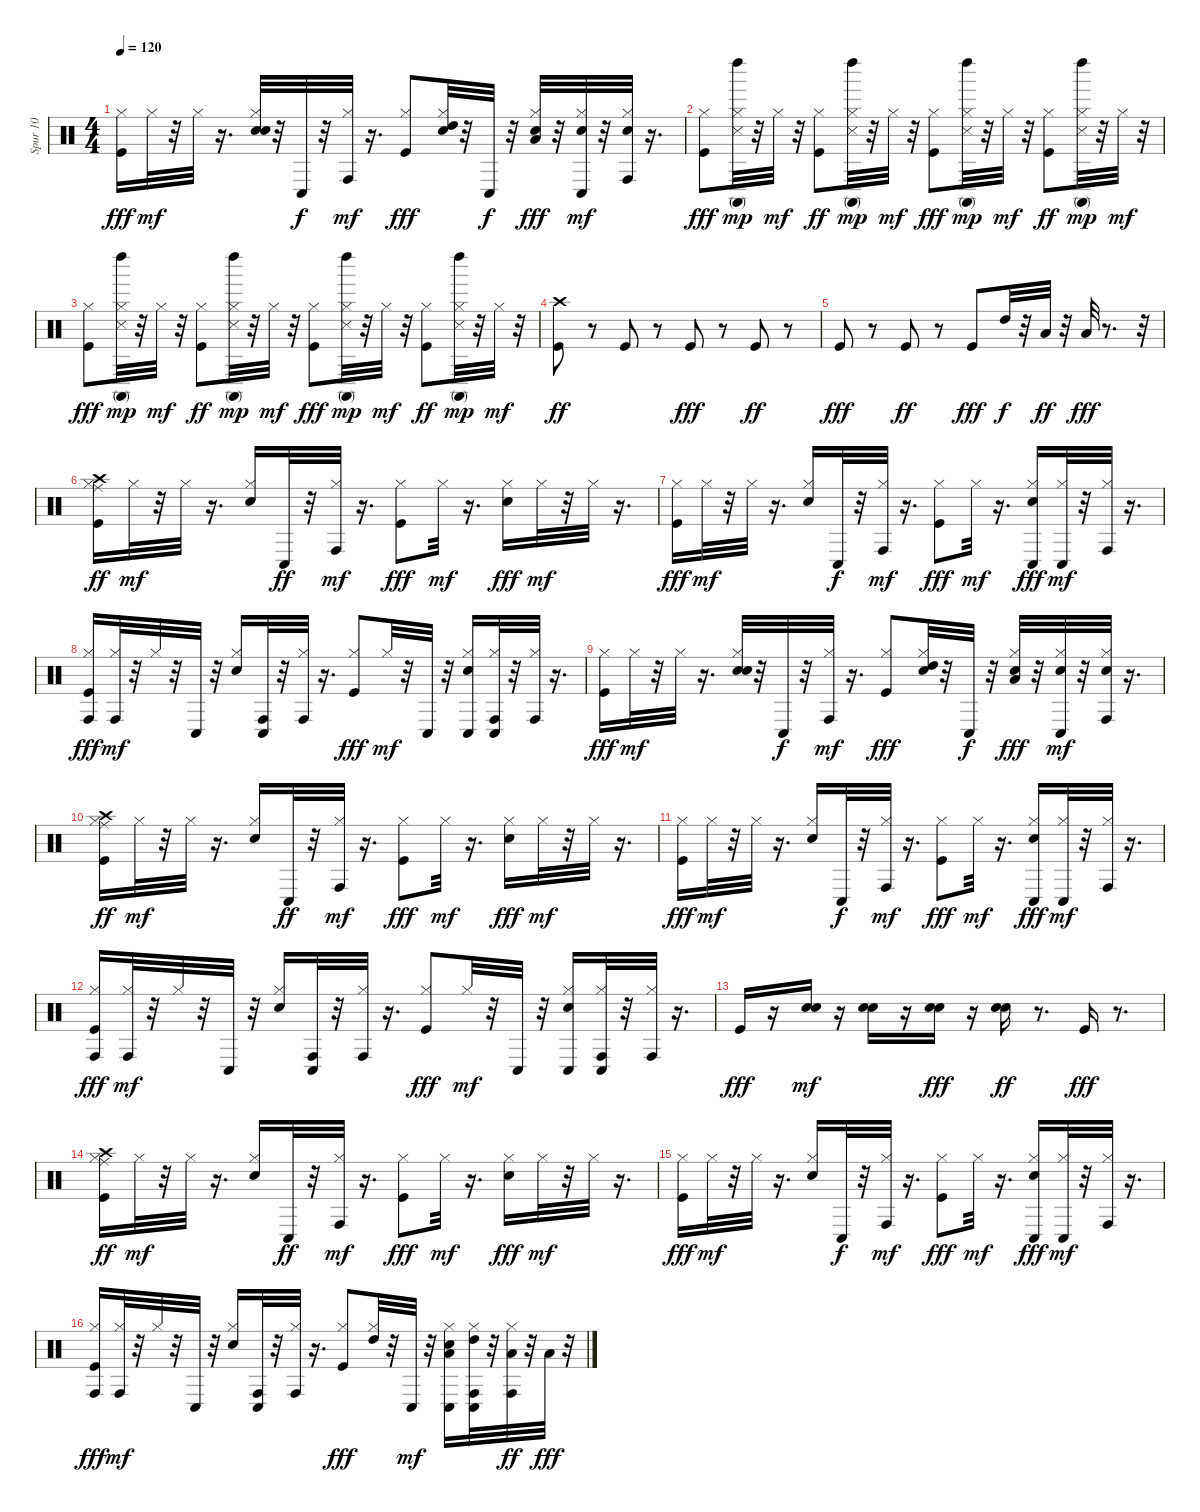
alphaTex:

\track ("Spur 10" "Spur 10") {instrument percussion}
\staff {score}
\articulation defaults
\ts (4 4)
\tempo 120
\clef neutral
\ks c
("Kick (hit)" "Hi-Hat (closed)").16{dy fff} "Hi-Hat (closed)".32{dy mf} r.32 "Hi-Hat (closed)".32 r.16{d} ("Snare (hit) 2" "Electric Snare (hit)" "Hi-Hat (closed)").32 r.32 "Conga low (hit)".32{dy f} r.32 ("Hi-Hat (closed)" "Conga high (hit)").32{dy mf} r.16{d} ("Kick (hit)" "Hi-Hat (closed)").8{dy fff} ("Electric Snare (hit)" "Hi-Hat (closed)" "High Tom (hit)").32 r.32 "Conga low (hit)".32{dy f} r.32 ("Snare (hit) 2" "Hi-Hat (closed)" "Low Floor Tom (hit)").32{dy fff} r.32 ("Snare (hit) 2" "Hi-Hat (closed)" "Conga low (hit)").32{dy mf} r.32 ("Snare (hit) 2" "Hi-Hat (closed)" "Conga high (hit)").32 r.16{d} |
("Kick (hit)" "Hi-Hat (closed)").8{dy fff} ("Hi-Hat (closed)" "Snare (side stick) 3" "Conga high (mute)" "Left Maraca (hit)").32{dy mp} r.32 "Hi-Hat (closed)".32{dy mf} r.32 ("Kick (hit)" "Hi-Hat (closed)").8{dy ff} ("Hi-Hat (closed)" "Snare (side stick) 3" "Conga high (mute)" "Left Maraca (hit)").32{dy mp} r.32 "Hi-Hat (closed)".32{dy mf} r.32 ("Kick (hit)" "Hi-Hat (closed)").8{dy fff} ("Hi-Hat (closed)" "Snare (side stick) 3" "Conga high (mute)" "Left Maraca (hit)").32{dy mp} r.32 "Hi-Hat (closed)".32{dy mf} r.32 ("Kick (hit)" "Hi-Hat (closed)").8{dy ff} ("Hi-Hat (closed)" "Snare (side stick) 3" "Conga high (mute)" "Left Maraca (hit)").32{dy mp} r.32 "Hi-Hat (closed)".32{dy mf} r.32 |
("Kick (hit)" "Hi-Hat (closed)").8{dy fff} ("Hi-Hat (closed)" "Snare (side stick) 3" "Conga high (mute)" "Left Maraca (hit)").32{dy mp} r.32 "Hi-Hat (closed)".32{dy mf} r.32 ("Kick (hit)" "Hi-Hat (closed)").8{dy ff} ("Hi-Hat (closed)" "Snare (side stick) 3" "Conga high (mute)" "Left Maraca (hit)").32{dy mp} r.32 "Hi-Hat (closed)".32{dy mf} r.32 ("Kick (hit)" "Hi-Hat (closed)").8{dy fff} ("Hi-Hat (closed)" "Snare (side stick) 3" "Conga high (mute)" "Left Maraca (hit)").32{dy mp} r.32 "Hi-Hat (closed)".32{dy mf} r.32 ("Kick (hit)" "Hi-Hat (closed)").8{dy ff} ("Hi-Hat (closed)" "Snare (side stick) 3" "Conga high (mute)" "Left Maraca (hit)").32{dy mp} r.32 "Hi-Hat (closed)".32{dy mf} r.32 |
("Kick (hit)" "Crash high (hit)").8{dy ff} r.8 "Kick (hit)".8 r.8 "Kick (hit)".8{dy fff} r.8 "Kick (hit)".8{dy ff} r.8 |
"Kick (hit)".8{dy fff} r.8 "Kick (hit)".8{dy ff} r.8 "Kick (hit)".8{dy fff} "High Tom (hit)".32{dy f} r.32 "Low Tom (hit)".32{dy ff} r.32 "Low Floor Tom (hit)".32{dy fff} r.8{d} r.32 |
("Kick (hit)" "Hi-Hat (closed)" "Ride (middle)" "Crash high (hit)").16{dy ff} "Hi-Hat (closed)".32{dy mf} r.32 "Hi-Hat (closed)".32 r.16{d} ("Snare (hit) 2" "Hi-Hat (closed)").16 "Conga low (hit)".32{dy ff} r.32 ("Hi-Hat (closed)" "Conga high (hit)").32{dy mf} r.16{d} ("Kick (hit)" "Hi-Hat (closed)").8{dy fff} "Hi-Hat (closed)".32{dy mf} r.16{d} ("Snare (hit) 2" "Hi-Hat (closed)").16{dy fff} "Hi-Hat (closed)".32{dy mf} r.32 "Hi-Hat (closed)".32 r.16{d} |
("Kick (hit)" "Hi-Hat (closed)").16{dy fff} "Hi-Hat (closed)".32{dy mf} r.32 "Hi-Hat (closed)".32 r.16{d} ("Snare (hit) 2" "Hi-Hat (closed)").16 "Conga low (hit)".32{dy f} r.32 ("Hi-Hat (closed)" "Conga high (hit)").32{dy mf} r.16{d} ("Kick (hit)" "Hi-Hat (closed)").8{dy fff} "Hi-Hat (closed)".32{dy mf} r.16{d} ("Snare (hit) 2" "Hi-Hat (closed)" "Conga low (hit)").16{dy fff} ("Hi-Hat (closed)" "Conga low (hit)").32{dy mf} r.32 ("Hi-Hat (closed)" "Conga high (hit)").32 r.16{d} |
("Kick (hit)" "Hi-Hat (closed)" "Conga high (hit)").16{dy fff} ("Hi-Hat (closed)" "Conga high (hit)").32{dy mf} r.32 "Hi-Hat (closed)".32 r.32 "Conga low (hit)".32 r.32 ("Snare (hit) 2" "Hi-Hat (closed)").16 ("Conga high (hit)" "Conga low (hit)").32 r.32 ("Hi-Hat (closed)" "Conga high (hit)").32 r.16{d} ("Kick (hit)" "Hi-Hat (closed)").8{dy fff} "Hi-Hat (closed)".32{dy mf} r.32 "Conga low (hit)".32 r.32 ("Snare (hit) 2" "Hi-Hat (closed)" "Conga low (hit)").16 ("Hi-Hat (closed)" "Conga high (hit)" "Conga low (hit)").32 r.32 ("Hi-Hat (closed)" "Conga high (hit)").32 r.16{d} |
("Kick (hit)" "Hi-Hat (closed)").16{dy fff} "Hi-Hat (closed)".32{dy mf} r.32 "Hi-Hat (closed)".32 r.16{d} ("Snare (hit) 2" "Electric Snare (hit)" "Hi-Hat (closed)").32 r.32 "Conga low (hit)".32{dy f} r.32 ("Hi-Hat (closed)" "Conga high (hit)").32{dy mf} r.16{d} ("Kick (hit)" "Hi-Hat (closed)").8{dy fff} ("Electric Snare (hit)" "Hi-Hat (closed)" "High Tom (hit)").32 r.32 "Conga low (hit)".32{dy f} r.32 ("Snare (hit) 2" "Hi-Hat (closed)" "Low Floor Tom (hit)").32{dy fff} r.32 ("Snare (hit) 2" "Hi-Hat (closed)" "Conga low (hit)").32{dy mf} r.32 ("Snare (hit) 2" "Hi-Hat (closed)" "Conga high (hit)").32 r.16{d} |
("Kick (hit)" "Hi-Hat (closed)" "Ride (middle)" "Crash high (hit)").16{dy ff} "Hi-Hat (closed)".32{dy mf} r.32 "Hi-Hat (closed)".32 r.16{d} ("Snare (hit) 2" "Hi-Hat (closed)").16 "Conga low (hit)".32{dy ff} r.32 ("Hi-Hat (closed)" "Conga high (hit)").32{dy mf} r.16{d} ("Kick (hit)" "Hi-Hat (closed)").8{dy fff} "Hi-Hat (closed)".32{dy mf} r.16{d} ("Snare (hit) 2" "Hi-Hat (closed)").16{dy fff} "Hi-Hat (closed)".32{dy mf} r.32 "Hi-Hat (closed)".32 r.16{d} |
("Kick (hit)" "Hi-Hat (closed)").16{dy fff} "Hi-Hat (closed)".32{dy mf} r.32 "Hi-Hat (closed)".32 r.16{d} ("Snare (hit) 2" "Hi-Hat (closed)").16 "Conga low (hit)".32{dy f} r.32 ("Hi-Hat (closed)" "Conga high (hit)").32{dy mf} r.16{d} ("Kick (hit)" "Hi-Hat (closed)").8{dy fff} "Hi-Hat (closed)".32{dy mf} r.16{d} ("Snare (hit) 2" "Hi-Hat (closed)" "Conga low (hit)").16{dy fff} ("Hi-Hat (closed)" "Conga low (hit)").32{dy mf} r.32 ("Hi-Hat (closed)" "Conga high (hit)").32 r.16{d} |
("Kick (hit)" "Hi-Hat (closed)" "Conga high (hit)").16{dy fff} ("Hi-Hat (closed)" "Conga high (hit)").32{dy mf} r.32 "Hi-Hat (closed)".32 r.32 "Conga low (hit)".32 r.32 ("Snare (hit) 2" "Hi-Hat (closed)").16 ("Conga high (hit)" "Conga low (hit)").32 r.32 ("Hi-Hat (closed)" "Conga high (hit)").32 r.16{d} ("Kick (hit)" "Hi-Hat (closed)").8{dy fff} "Hi-Hat (closed)".32{dy mf} r.32 "Conga low (hit)".32 r.32 ("Snare (hit) 2" "Hi-Hat (closed)" "Conga low (hit)").16 ("Hi-Hat (closed)" "Conga high (hit)" "Conga low (hit)").32 r.32 ("Hi-Hat (closed)" "Conga high (hit)").32 r.16{d} |
"Kick (hit)".16{dy fff} r.16 ("Snare (hit) 2" "Electric Snare (hit)").16{dy mf} r.16 ("Snare (hit) 2" "Electric Snare (hit)").16 r.16 ("Snare (hit) 2" "Electric Snare (hit)").16{dy fff} r.16 ("Snare (hit) 2" "Electric Snare (hit)").16{dy ff} r.8{d} "Kick (hit)".16{dy fff} r.8{d} |
("Kick (hit)" "Hi-Hat (closed)" "Ride (middle)" "Crash high (hit)").16{dy ff} "Hi-Hat (closed)".32{dy mf} r.32 "Hi-Hat (closed)".32 r.16{d} ("Snare (hit) 2" "Hi-Hat (closed)").16 "Conga low (hit)".32{dy ff} r.32 ("Hi-Hat (closed)" "Conga high (hit)").32{dy mf} r.16{d} ("Kick (hit)" "Hi-Hat (closed)").8{dy fff} "Hi-Hat (closed)".32{dy mf} r.16{d} ("Snare (hit) 2" "Hi-Hat (closed)").16{dy fff} "Hi-Hat (closed)".32{dy mf} r.32 "Hi-Hat (closed)".32 r.16{d} |
("Kick (hit)" "Hi-Hat (closed)").16{dy fff} "Hi-Hat (closed)".32{dy mf} r.32 "Hi-Hat (closed)".32 r.16{d} ("Snare (hit) 2" "Hi-Hat (closed)").16 "Conga low (hit)".32{dy f} r.32 ("Hi-Hat (closed)" "Conga high (hit)").32{dy mf} r.16{d} ("Kick (hit)" "Hi-Hat (closed)").8{dy fff} "Hi-Hat (closed)".32{dy mf} r.16{d} ("Snare (hit) 2" "Hi-Hat (closed)" "Conga low (hit)").16{dy fff} ("Hi-Hat (closed)" "Conga low (hit)").32{dy mf} r.32 ("Hi-Hat (closed)" "Conga high (hit)").32 r.16{d} |
("Kick (hit)" "Hi-Hat (closed)" "Conga high (hit)").16{dy fff} ("Hi-Hat (closed)" "Conga high (hit)").32{dy mf} r.32 "Hi-Hat (closed)".32 r.32 "Conga low (hit)".32 r.32 ("Snare (hit) 2" "Hi-Hat (closed)").16 ("Conga high (hit)" "Conga low (hit)").32 r.32 ("Hi-Hat (closed)" "Conga high (hit)").32 r.16{d} ("Kick (hit)" "Hi-Hat (closed)").8{dy fff} ("Hi-Hat (closed)" "High Tom (hit)").32 r.32 "Conga low (hit)".32{dy mf} r.32 ("Snare (hit) 2" "Hi-Hat (closed)" "Low Tom (hit)" "Conga low (hit)").16 ("Hi-Hat (closed)" "High Tom (hit)" "Conga high (hit)" "Conga low (hit)").32 r.32 ("Hi-Hat (closed)" "Low Tom (hit)" "Conga high (hit)").32{dy ff} r.32 "Low Tom (hit)".32{dy fff} r.32
